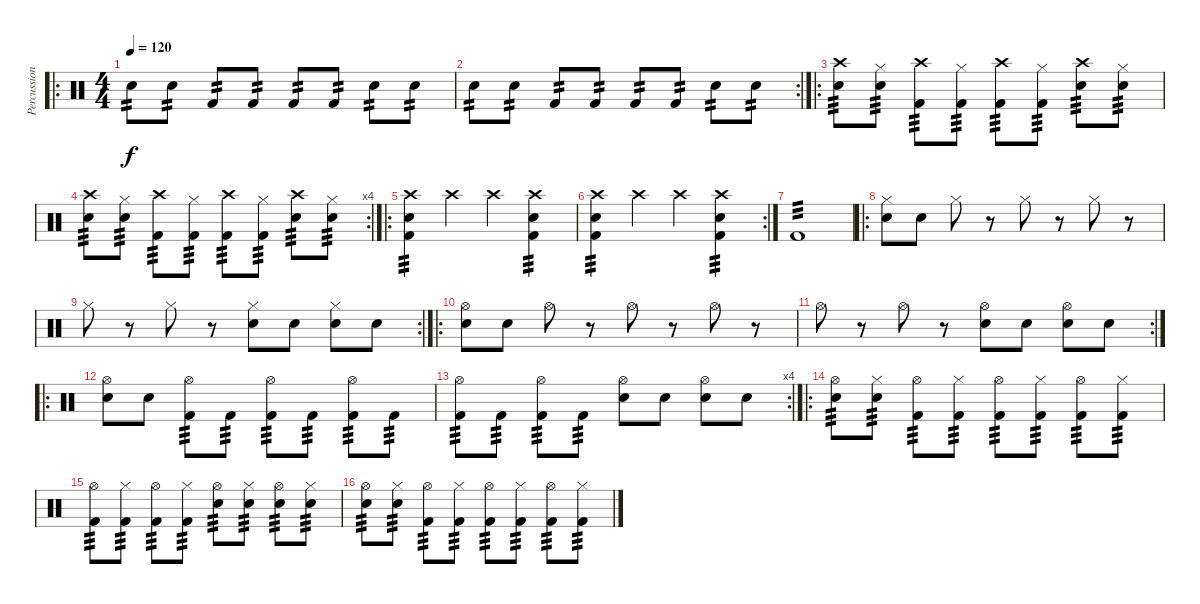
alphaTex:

\track ("Percussions" "Percussion") {instrument percussion}
\staff {score}
\articulation defaults
\ro
\ts (4 4)
\tempo 120
\clef neutral
\ks c "Snare (hit) 2".8{tp 2 dy f} "Snare (hit) 2".8{tp 2} "Kick (hit) 2".8{tp 2} "Kick (hit) 2".8{tp 2} "Kick (hit) 2".8{tp 2} "Kick (hit) 2".8{tp 2} "Snare (hit) 2".8{tp 2} "Snare (hit) 2".8{tp 2}
|
\rc 2 "Snare (hit) 2".8{tp 2} "Snare (hit) 2".8{tp 2} "Kick (hit) 2".8{tp 2} "Kick (hit) 2".8{tp 2} "Kick (hit) 2".8{tp 2} "Kick (hit) 2".8{tp 2} "Snare (hit) 2".8{tp 2} "Snare (hit) 2".8{tp 2}
|
\ro
("Crash high (hit)" "Snare (hit) 2").8{tp 3} ("Hi-Hat (closed)" "Snare (hit) 2").8{tp 3} ("Crash high (hit)" "Kick (hit) 2").8{tp 3} ("Hi-Hat (closed)" "Kick (hit) 2").8{tp 3} ("Crash high (hit)" "Kick (hit) 2").8{tp 3} ("Hi-Hat (closed)" "Kick (hit) 2").8{tp 3} ("Crash high (hit)" "Snare (hit) 2").8{tp 3} ("Hi-Hat (closed)" "Snare (hit) 2").8{tp 3} |
\rc 4
("Crash high (hit)" "Snare (hit) 2").8{tp 3} ("Hi-Hat (closed)" "Snare (hit) 2").8{tp 3} ("Crash high (hit)" "Kick (hit) 2").8{tp 3} ("Hi-Hat (closed)" "Kick (hit) 2").8{tp 3} ("Crash high (hit)" "Kick (hit) 2").8{tp 3} ("Hi-Hat (closed)" "Kick (hit) 2").8{tp 3} ("Crash high (hit)" "Snare (hit) 2").8{tp 3} ("Hi-Hat (closed)" "Snare (hit) 2").8{tp 3} |
\ro
("Crash high (hit)" "Kick (hit) 2" "Snare (hit) 2").4{tp 3} "Crash high (hit)".4 "Crash high (hit)".4 ("Crash high (hit)" "Kick (hit) 2" "Snare (hit) 2").4{tp 3} |
\rc 2
("Crash high (hit)" "Kick (hit) 2" "Snare (hit) 2").4{tp 3} "Crash high (hit)".4 "Crash high (hit)".4 ("Crash high (hit)" "Kick (hit) 2" "Snare (hit) 2").4{tp 3} |
"Kick (hit) 2".1{tp 3} |
\ro
("Hi-Hat (closed)" "Snare (hit) 2").8 "Snare (hit) 2".8 "Hi-Hat (closed)".8 r.8 "Hi-Hat (closed)".8 r.8 "Hi-Hat (closed)".8 r.8 |
\rc 2 "Hi-Hat (closed)".8
r.8 "Hi-Hat (closed)".8 r.8 ("Hi-Hat (closed)" "Snare (hit) 2").8 "Snare (hit) 2".8 ("Hi-Hat (closed)" "Snare (hit) 2").8 "Snare (hit) 2".8 |
\ro
("Hi-Hat (open)" "Snare (hit) 2").8 "Snare (hit) 2".8 "Hi-Hat (open)".8 r.8 "Hi-Hat (open)".8 r.8 "Hi-Hat (open)".8 r.8 |
\rc 2 "Hi-Hat (open)".8
r.8 "Hi-Hat (open)".8 r.8 ("Hi-Hat (open)" "Snare (hit) 2").8 "Snare (hit) 2".8 ("Hi-Hat (open)" "Snare (hit) 2").8 "Snare (hit) 2".8 |
\ro
("Hi-Hat (open)" "Snare (hit) 2").8 "Snare (hit) 2".8 ("Hi-Hat (open)" "Kick (hit) 2").8{tp 3} "Kick (hit) 2".8{tp 3} ("Hi-Hat (open)" "Kick (hit) 2").8{tp 3} "Kick (hit) 2".8{tp 3} ("Hi-Hat (open)" "Kick (hit) 2").8{tp 3} "Kick (hit) 2".8{tp 3} |
\rc 4
("Hi-Hat (open)" "Kick (hit) 2").8{tp 3} "Kick (hit) 2".8{tp 3} ("Hi-Hat (open)" "Kick (hit) 2").8{tp 3} "Kick (hit) 2".8{tp 3} ("Hi-Hat (open)" "Snare (hit) 2").8 "Snare (hit) 2".8 ("Hi-Hat (open)" "Snare (hit) 2").8 "Snare (hit) 2".8 |
\ro
("Hi-Hat (open)" "Snare (hit) 2").8{tp 3} ("Hi-Hat (closed)" "Snare (hit) 2").8{tp 3} ("Hi-Hat (open)" "Kick (hit) 2").8{tp 3} ("Hi-Hat (closed)" "Kick (hit) 2").8{tp 3} ("Hi-Hat (open)" "Kick (hit) 2").8{tp 3} ("Hi-Hat (closed)" "Kick (hit) 2").8{tp 3} ("Hi-Hat (open)" "Kick (hit) 2").8{tp 3} ("Hi-Hat (closed)" "Kick (hit) 2").8{tp 3} |
("Hi-Hat (open)" "Kick (hit) 2").8{tp 3} ("Hi-Hat (closed)" "Kick (hit) 2").8{tp 3} ("Hi-Hat (open)" "Kick (hit) 2").8{tp 3} ("Hi-Hat (closed)" "Kick (hit) 2").8{tp 3} ("Hi-Hat (open)" "Snare (hit) 2").8{tp 3} ("Hi-Hat (closed)" "Snare (hit) 2").8{tp 3} ("Hi-Hat (open)" "Snare (hit) 2").8{tp 3} ("Hi-Hat (closed)" "Snare (hit) 2").8{tp 3} |
("Hi-Hat (open)" "Snare (hit) 2").8{tp 3} ("Hi-Hat (closed)" "Snare (hit) 2").8{tp 3} ("Hi-Hat (open)" "Kick (hit) 2").8{tp 3} ("Hi-Hat (closed)" "Kick (hit) 2").8{tp 3} ("Hi-Hat (open)" "Kick (hit) 2").8{tp 3} ("Hi-Hat (closed)" "Kick (hit) 2").8{tp 3} ("Hi-Hat (open)" "Kick (hit) 2").8{tp 3} ("Hi-Hat (closed)" "Kick (hit) 2").8{tp 3}
